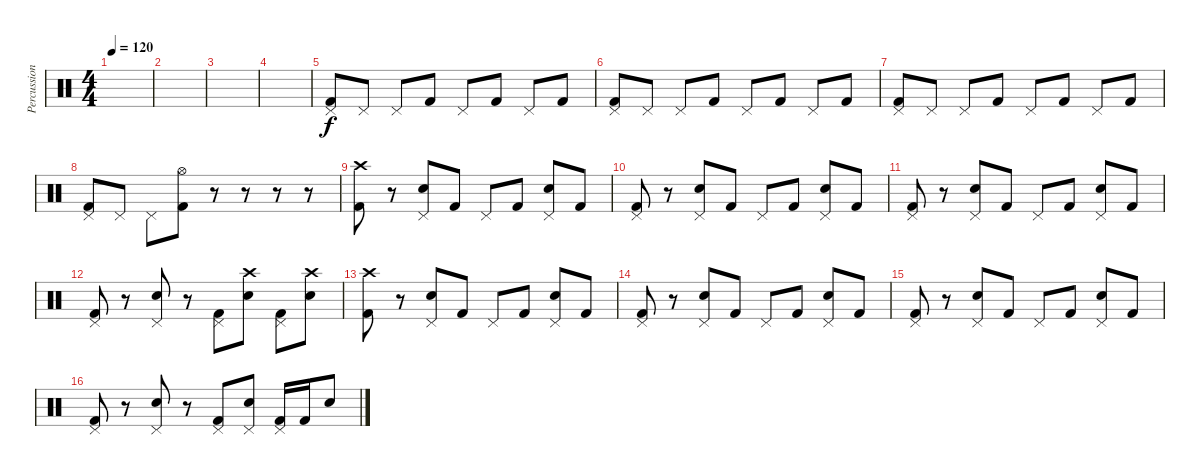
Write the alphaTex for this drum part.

\track ("Percussion" "Percussion") {instrument percussion}
\staff {score}
\articulation defaults
\ts (4 4)
\tempo 120
\clef neutral
\ks c
|
|
|
|
("Pedal Hi-Hat (hit)" "Kick (hit) 2").8 "Pedal Hi-Hat (hit)".8 "Pedal Hi-Hat (hit)".8 "Kick (hit) 2".8 "Pedal Hi-Hat (hit)".8 "Kick (hit) 2".8 "Pedal Hi-Hat (hit)".8 "Kick (hit) 2".8 |
("Pedal Hi-Hat (hit)" "Kick (hit) 2").8 "Pedal Hi-Hat (hit)".8 "Pedal Hi-Hat (hit)".8 "Kick (hit) 2".8 "Pedal Hi-Hat (hit)".8 "Kick (hit) 2".8 "Pedal Hi-Hat (hit)".8 "Kick (hit) 2".8 |
("Pedal Hi-Hat (hit)" "Kick (hit) 2").8 "Pedal Hi-Hat (hit)".8 "Pedal Hi-Hat (hit)".8 "Kick (hit) 2".8 "Pedal Hi-Hat (hit)".8 "Kick (hit) 2".8 "Pedal Hi-Hat (hit)".8 "Kick (hit) 2".8 |
("Pedal Hi-Hat (hit)" "Kick (hit) 2").8 "Pedal Hi-Hat (hit)".8 "Pedal Hi-Hat (hit)".8 ("Hi-Hat (open)" "Kick (hit) 2").8 r.8 r.8 r.8 r.8 |
("Crash high (hit)" "Kick (hit) 2").8 r.8 ("Pedal Hi-Hat (hit)" "Electric Snare (hit)").8 "Kick (hit) 2".8 "Pedal Hi-Hat (hit)".8 "Kick (hit) 2".8 ("Pedal Hi-Hat (hit)" "Electric Snare (hit)").8 "Kick (hit) 2".8 |
("Pedal Hi-Hat (hit)" "Kick (hit) 2").8 r.8 ("Pedal Hi-Hat (hit)" "Electric Snare (hit)").8 "Kick (hit) 2".8 "Pedal Hi-Hat (hit)".8 "Kick (hit) 2".8 ("Pedal Hi-Hat (hit)" "Electric Snare (hit)").8 "Kick (hit) 2".8 |
("Pedal Hi-Hat (hit)" "Kick (hit) 2").8 r.8 ("Pedal Hi-Hat (hit)" "Electric Snare (hit)").8 "Kick (hit) 2".8 "Pedal Hi-Hat (hit)".8 "Kick (hit) 2".8 ("Pedal Hi-Hat (hit)" "Electric Snare (hit)").8 "Kick (hit) 2".8 |
("Pedal Hi-Hat (hit)" "Kick (hit) 2").8 r.8 ("Pedal Hi-Hat (hit)" "Electric Snare (hit)").8 r.8 ("Pedal Hi-Hat (hit)" "Kick (hit) 2").8 ("Crash high (hit)" "Electric Snare (hit)").8 ("Pedal Hi-Hat (hit)" "Kick (hit) 2").8 ("Crash high (hit)" "Electric Snare (hit)").8 |
("Crash high (hit)" "Kick (hit) 2").8 r.8 ("Pedal Hi-Hat (hit)" "Electric Snare (hit)").8 "Kick (hit) 2".8 "Pedal Hi-Hat (hit)".8 "Kick (hit) 2".8 ("Pedal Hi-Hat (hit)" "Electric Snare (hit)").8 "Kick (hit) 2".8 |
("Pedal Hi-Hat (hit)" "Kick (hit) 2").8 r.8 ("Pedal Hi-Hat (hit)" "Electric Snare (hit)").8 "Kick (hit) 2".8 "Pedal Hi-Hat (hit)".8 "Kick (hit) 2".8 ("Pedal Hi-Hat (hit)" "Electric Snare (hit)").8 "Kick (hit) 2".8 |
("Pedal Hi-Hat (hit)" "Kick (hit) 2").8 r.8 ("Pedal Hi-Hat (hit)" "Electric Snare (hit)").8 "Kick (hit) 2".8 "Pedal Hi-Hat (hit)".8 "Kick (hit) 2".8 ("Pedal Hi-Hat (hit)" "Electric Snare (hit)").8 "Kick (hit) 2".8 |
("Pedal Hi-Hat (hit)" "Kick (hit) 2").8 r.8 ("Pedal Hi-Hat (hit)" "Electric Snare (hit)").8 r.8 ("Pedal Hi-Hat (hit)" "Kick (hit) 2").8 ("Pedal Hi-Hat (hit)" "Electric Snare (hit)").8 ("Pedal Hi-Hat (hit)" "Kick (hit) 2").16 "Kick (hit) 2".16 "Electric Snare (hit)".8
